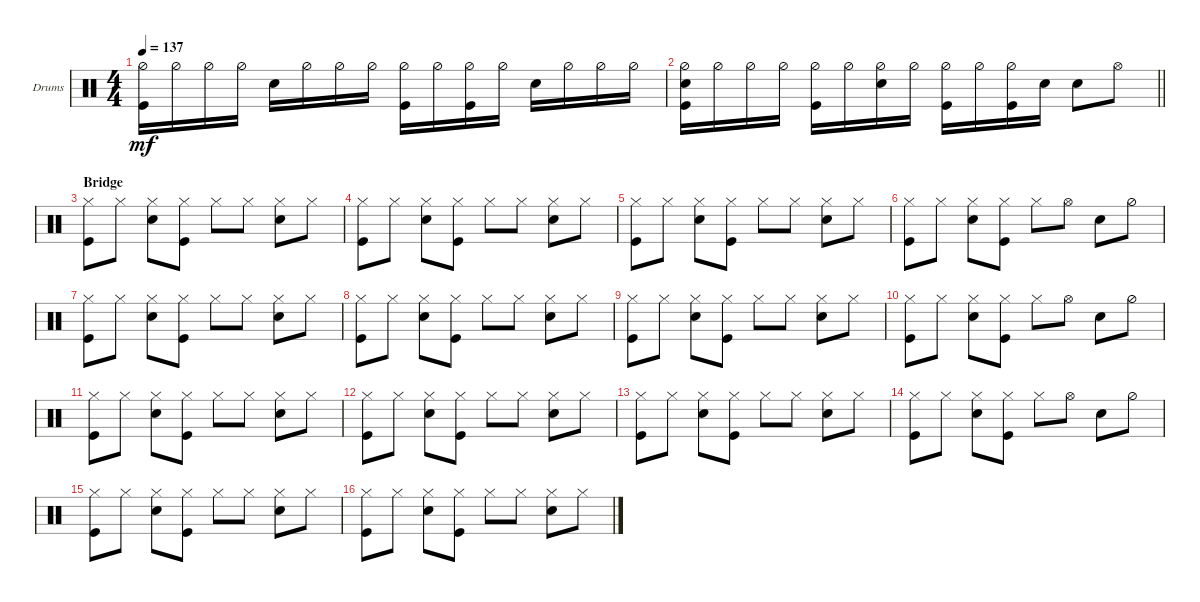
\bracketExtendMode groupsimilarinstruments
\firstSystemTrackNameOrientation horizontal
\otherSystemsTrackNameOrientation horizontal
\track ("Fabrizio" "Drums") {instrument percussion}
\staff {score}
\articulation defaults
\ts (4 4)
\tempo 137
\clef neutral
\scale
0.333333
\ks c
("Kick (hit)" "Hi-Hat (half)").16{dy mf} "Hi-Hat (half)".16 "Hi-Hat (half)".16 "Hi-Hat (half)".16 "Snare (hit) 2".16 "Hi-Hat (half)".16 "Hi-Hat (half)".16 "Hi-Hat (half)".16 ("Hi-Hat (half)" "Kick (hit)").16 "Hi-Hat (half)".16 ("Hi-Hat (half)" "Kick (hit)").16 "Hi-Hat (half)".16 "Snare (hit) 2".16 "Hi-Hat (half)".16 "Hi-Hat (half)".16 "Hi-Hat (half)".16 |
\scale
0.333333
\barLineRight lightlight
("Snare (hit) 2" "Hi-Hat (half)" "Kick (hit)").16 "Hi-Hat (half)".16 "Hi-Hat (half)".16 "Hi-Hat (half)".16 ("Kick (hit)" "Hi-Hat (half)").16 "Hi-Hat (half)".16 ("Snare (hit) 2" "Hi-Hat (half)").16 "Hi-Hat (half)".16 ("Kick (hit)" "Hi-Hat (half)").16 "Hi-Hat (half)".16 ("Hi-Hat (half)" "Kick (hit)").16 "Snare (hit) 2".16 "Snare (hit) 2".8 "Hi-Hat (open)".8 |
\section ("" "Bridge")
\scale
0.333333 ("Kick (hit)" "Hi-Hat (closed)").8 "Hi-Hat (closed)".8 ("Hi-Hat (closed)" "Snare (hit) 2").8 ("Hi-Hat (closed)" "Kick (hit)").8 "Hi-Hat (closed)".8 "Hi-Hat (closed)".8 ("Hi-Hat (closed)" "Snare (hit) 2").8 "Hi-Hat (closed)".8 |
\scale
0.333333 ("Kick (hit)" "Hi-Hat (closed)").8 "Hi-Hat (closed)".8 ("Hi-Hat (closed)" "Snare (hit) 2").8 ("Hi-Hat (closed)" "Kick (hit)").8 "Hi-Hat (closed)".8 "Hi-Hat (closed)".8 ("Hi-Hat (closed)" "Snare (hit) 2").8 "Hi-Hat (closed)".8 |
\scale
0.333333 ("Kick (hit)" "Hi-Hat (closed)").8 "Hi-Hat (closed)".8 ("Hi-Hat (closed)" "Snare (hit) 2").8 ("Hi-Hat (closed)" "Kick (hit)").8 "Hi-Hat (closed)".8 "Hi-Hat (closed)".8 ("Hi-Hat (closed)" "Snare (hit) 2").8 "Hi-Hat (closed)".8 |
\scale
0.333333 ("Kick (hit)" "Hi-Hat (closed)").8 "Hi-Hat (closed)".8 ("Hi-Hat (closed)" "Snare (hit) 2").8 ("Hi-Hat (closed)" "Kick (hit)").8 "Hi-Hat (closed)".8 "Hi-Hat (open)".8 "Snare (hit) 2".8 "Hi-Hat (half)".8 |
\scale
0.333333 ("Kick (hit)" "Hi-Hat (closed)").8 "Hi-Hat (closed)".8 ("Hi-Hat (closed)" "Snare (hit) 2").8 ("Hi-Hat (closed)" "Kick (hit)").8 "Hi-Hat (closed)".8 "Hi-Hat (closed)".8 ("Hi-Hat (closed)" "Snare (hit) 2").8 "Hi-Hat (closed)".8 |
\scale
0.333333 ("Kick (hit)" "Hi-Hat (closed)").8 "Hi-Hat (closed)".8 ("Hi-Hat (closed)" "Snare (hit) 2").8 ("Hi-Hat (closed)" "Kick (hit)").8 "Hi-Hat (closed)".8 "Hi-Hat (closed)".8 ("Hi-Hat (closed)" "Snare (hit) 2").8 "Hi-Hat (closed)".8 |
\scale
0.333333 ("Kick (hit)" "Hi-Hat (closed)").8 "Hi-Hat (closed)".8 ("Hi-Hat (closed)" "Snare (hit) 2").8 ("Hi-Hat (closed)" "Kick (hit)").8 "Hi-Hat (closed)".8 "Hi-Hat (closed)".8 ("Hi-Hat (closed)" "Snare (hit) 2").8 "Hi-Hat (closed)".8 |
\scale
0.333333 ("Kick (hit)" "Hi-Hat (closed)").8 "Hi-Hat (closed)".8 ("Hi-Hat (closed)" "Snare (hit) 2").8 ("Hi-Hat (closed)" "Kick (hit)").8 "Hi-Hat (closed)".8 "Hi-Hat (open)".8 "Snare (hit) 2".8 "Hi-Hat (half)".8 |
\scale
0.333333 ("Kick (hit)" "Hi-Hat (closed)").8 "Hi-Hat (closed)".8 ("Hi-Hat (closed)" "Snare (hit) 2").8 ("Hi-Hat (closed)" "Kick (hit)").8 "Hi-Hat (closed)".8 "Hi-Hat (closed)".8 ("Hi-Hat (closed)" "Snare (hit) 2").8 "Hi-Hat (closed)".8 |
\scale
0.333333 ("Kick (hit)" "Hi-Hat (closed)").8 "Hi-Hat (closed)".8 ("Hi-Hat (closed)" "Snare (hit) 2").8 ("Hi-Hat (closed)" "Kick (hit)").8 "Hi-Hat (closed)".8 "Hi-Hat (closed)".8 ("Hi-Hat (closed)" "Snare (hit) 2").8 "Hi-Hat (closed)".8 |
\scale
0.333333 ("Kick (hit)" "Hi-Hat (closed)").8 "Hi-Hat (closed)".8 ("Hi-Hat (closed)" "Snare (hit) 2").8 ("Hi-Hat (closed)" "Kick (hit)").8 "Hi-Hat (closed)".8 "Hi-Hat (closed)".8 ("Hi-Hat (closed)" "Snare (hit) 2").8 "Hi-Hat (closed)".8 |
\scale
0.333333 ("Kick (hit)" "Hi-Hat (closed)").8 "Hi-Hat (closed)".8 ("Hi-Hat (closed)" "Snare (hit) 2").8 ("Hi-Hat (closed)" "Kick (hit)").8 "Hi-Hat (closed)".8 "Hi-Hat (open)".8 "Snare (hit) 2".8 "Hi-Hat (half)".8 |
\scale
0.333333 ("Kick (hit)" "Hi-Hat (closed)").8 "Hi-Hat (closed)".8 ("Hi-Hat (closed)" "Snare (hit) 2").8 ("Hi-Hat (closed)" "Kick (hit)").8 "Hi-Hat (closed)".8 "Hi-Hat (closed)".8 ("Hi-Hat (closed)" "Snare (hit) 2").8 "Hi-Hat (closed)".8 |
\scale
0.333333 ("Kick (hit)" "Hi-Hat (closed)").8 "Hi-Hat (closed)".8 ("Hi-Hat (closed)" "Snare (hit) 2").8 ("Hi-Hat (closed)" "Kick (hit)").8 "Hi-Hat (closed)".8 "Hi-Hat (closed)".8 ("Hi-Hat (closed)" "Snare (hit) 2").8 "Hi-Hat (closed)".8
